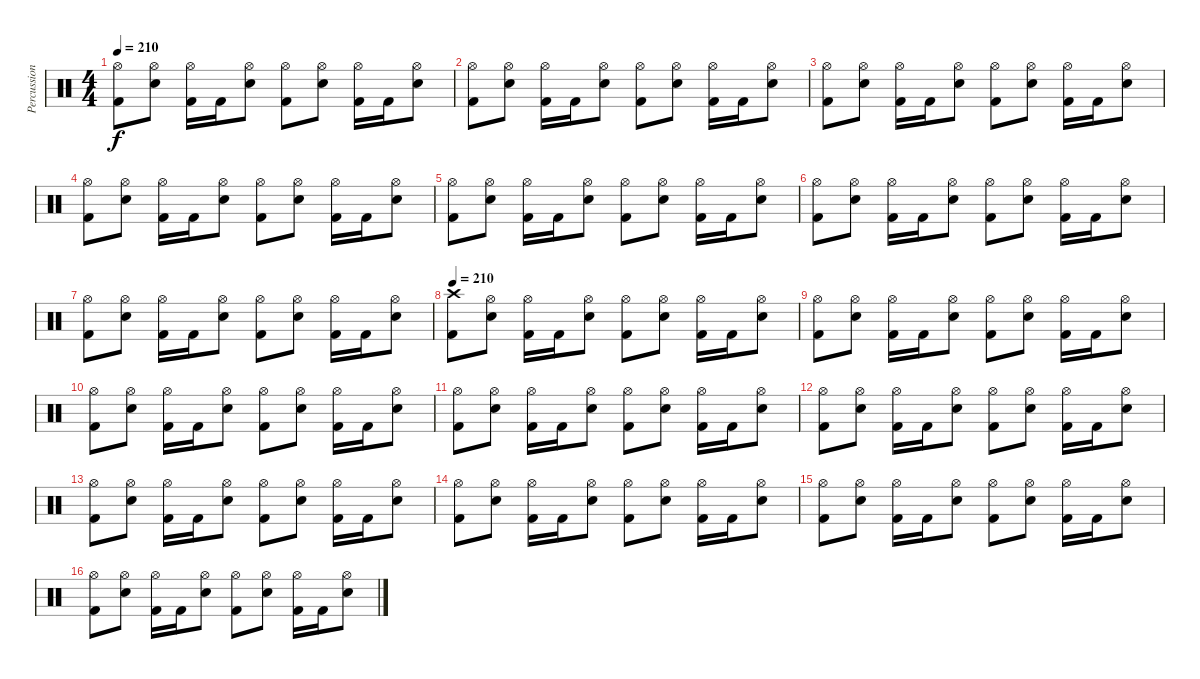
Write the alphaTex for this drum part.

\track ("Percussions" "Percussion") {instrument percussion}
\staff {score}
\articulation defaults
\ts (4 4)
\tempo 210
\clef neutral
\ks c
("Hi-Hat (open)" "Kick (hit) 2").8{dy f} ("Hi-Hat (open)" "Snare (hit) 2").8 ("Hi-Hat (open)" "Kick (hit) 2").16 "Kick (hit) 2".16 ("Hi-Hat (open)" "Snare (hit) 2").8 ("Hi-Hat (open)" "Kick (hit) 2").8 ("Hi-Hat (open)" "Snare (hit) 2").8 ("Hi-Hat (open)" "Kick (hit) 2").16 "Kick (hit) 2".16 ("Hi-Hat (open)" "Snare (hit) 2").8 |
("Hi-Hat (open)" "Kick (hit) 2").8 ("Hi-Hat (open)" "Snare (hit) 2").8 ("Hi-Hat (open)" "Kick (hit) 2").16 "Kick (hit) 2".16 ("Hi-Hat (open)" "Snare (hit) 2").8 ("Hi-Hat (open)" "Kick (hit) 2").8 ("Hi-Hat (open)" "Snare (hit) 2").8 ("Hi-Hat (open)" "Kick (hit) 2").16 "Kick (hit) 2".16 ("Hi-Hat (open)" "Snare (hit) 2").8 |
("Hi-Hat (open)" "Kick (hit) 2").8 ("Hi-Hat (open)" "Snare (hit) 2").8 ("Hi-Hat (open)" "Kick (hit) 2").16 "Kick (hit) 2".16 ("Hi-Hat (open)" "Snare (hit) 2").8 ("Hi-Hat (open)" "Kick (hit) 2").8 ("Hi-Hat (open)" "Snare (hit) 2").8 ("Hi-Hat (open)" "Kick (hit) 2").16 "Kick (hit) 2".16 ("Hi-Hat (open)" "Snare (hit) 2").8 |
("Hi-Hat (open)" "Kick (hit) 2").8 ("Hi-Hat (open)" "Snare (hit) 2").8 ("Hi-Hat (open)" "Kick (hit) 2").16 "Kick (hit) 2".16 ("Hi-Hat (open)" "Snare (hit) 2").8 ("Hi-Hat (open)" "Kick (hit) 2").8 ("Hi-Hat (open)" "Snare (hit) 2").8 ("Hi-Hat (open)" "Kick (hit) 2").16 "Kick (hit) 2".16 ("Hi-Hat (open)" "Snare (hit) 2").8 |
("Hi-Hat (open)" "Kick (hit) 2").8 ("Hi-Hat (open)" "Snare (hit) 2").8 ("Hi-Hat (open)" "Kick (hit) 2").16 "Kick (hit) 2".16 ("Hi-Hat (open)" "Snare (hit) 2").8 ("Hi-Hat (open)" "Kick (hit) 2").8 ("Hi-Hat (open)" "Snare (hit) 2").8 ("Hi-Hat (open)" "Kick (hit) 2").16 "Kick (hit) 2".16 ("Hi-Hat (open)" "Snare (hit) 2").8 |
("Hi-Hat (open)" "Kick (hit) 2").8 ("Hi-Hat (open)" "Snare (hit) 2").8 ("Hi-Hat (open)" "Kick (hit) 2").16 "Kick (hit) 2".16 ("Hi-Hat (open)" "Snare (hit) 2").8 ("Hi-Hat (open)" "Kick (hit) 2").8 ("Hi-Hat (open)" "Snare (hit) 2").8 ("Hi-Hat (open)" "Kick (hit) 2").16 "Kick (hit) 2".16 ("Hi-Hat (open)" "Snare (hit) 2").8 |
("Hi-Hat (open)" "Kick (hit) 2").8 ("Hi-Hat (open)" "Snare (hit) 2").8 ("Hi-Hat (open)" "Kick (hit) 2").16 "Kick (hit) 2".16 ("Hi-Hat (open)" "Snare (hit) 2").8 ("Hi-Hat (open)" "Kick (hit) 2").8 ("Hi-Hat (open)" "Snare (hit) 2").8 ("Hi-Hat (open)" "Kick (hit) 2").16 "Kick (hit) 2".16 ("Hi-Hat (open)" "Snare (hit) 2").8 |
\tempo 210
("Crash high (hit)" "Kick (hit) 2").8 ("Hi-Hat (open)" "Snare (hit) 2").8 ("Hi-Hat (open)" "Kick (hit) 2").16 "Kick (hit) 2".16 ("Hi-Hat (open)" "Snare (hit) 2").8 ("Hi-Hat (open)" "Kick (hit) 2").8 ("Hi-Hat (open)" "Snare (hit) 2").8 ("Hi-Hat (open)" "Kick (hit) 2").16 "Kick (hit) 2".16 ("Hi-Hat (open)" "Snare (hit) 2").8 |
("Hi-Hat (open)" "Kick (hit) 2").8 ("Hi-Hat (open)" "Snare (hit) 2").8 ("Hi-Hat (open)" "Kick (hit) 2").16 "Kick (hit) 2".16 ("Hi-Hat (open)" "Snare (hit) 2").8 ("Hi-Hat (open)" "Kick (hit) 2").8 ("Hi-Hat (open)" "Snare (hit) 2").8 ("Hi-Hat (open)" "Kick (hit) 2").16 "Kick (hit) 2".16 ("Hi-Hat (open)" "Snare (hit) 2").8 |
("Hi-Hat (open)" "Kick (hit) 2").8 ("Hi-Hat (open)" "Snare (hit) 2").8 ("Hi-Hat (open)" "Kick (hit) 2").16 "Kick (hit) 2".16 ("Hi-Hat (open)" "Snare (hit) 2").8 ("Hi-Hat (open)" "Kick (hit) 2").8 ("Hi-Hat (open)" "Snare (hit) 2").8 ("Hi-Hat (open)" "Kick (hit) 2").16 "Kick (hit) 2".16 ("Hi-Hat (open)" "Snare (hit) 2").8 |
("Hi-Hat (open)" "Kick (hit) 2").8 ("Hi-Hat (open)" "Snare (hit) 2").8 ("Hi-Hat (open)" "Kick (hit) 2").16 "Kick (hit) 2".16 ("Hi-Hat (open)" "Snare (hit) 2").8 ("Hi-Hat (open)" "Kick (hit) 2").8 ("Hi-Hat (open)" "Snare (hit) 2").8 ("Hi-Hat (open)" "Kick (hit) 2").16 "Kick (hit) 2".16 ("Hi-Hat (open)" "Snare (hit) 2").8 |
("Hi-Hat (open)" "Kick (hit) 2").8 ("Hi-Hat (open)" "Snare (hit) 2").8 ("Hi-Hat (open)" "Kick (hit) 2").16 "Kick (hit) 2".16 ("Hi-Hat (open)" "Snare (hit) 2").8 ("Hi-Hat (open)" "Kick (hit) 2").8 ("Hi-Hat (open)" "Snare (hit) 2").8 ("Hi-Hat (open)" "Kick (hit) 2").16 "Kick (hit) 2".16 ("Hi-Hat (open)" "Snare (hit) 2").8 |
("Hi-Hat (open)" "Kick (hit) 2").8 ("Hi-Hat (open)" "Snare (hit) 2").8 ("Hi-Hat (open)" "Kick (hit) 2").16 "Kick (hit) 2".16 ("Hi-Hat (open)" "Snare (hit) 2").8 ("Hi-Hat (open)" "Kick (hit) 2").8 ("Hi-Hat (open)" "Snare (hit) 2").8 ("Hi-Hat (open)" "Kick (hit) 2").16 "Kick (hit) 2".16 ("Hi-Hat (open)" "Snare (hit) 2").8 |
("Hi-Hat (open)" "Kick (hit) 2").8 ("Hi-Hat (open)" "Snare (hit) 2").8 ("Hi-Hat (open)" "Kick (hit) 2").16 "Kick (hit) 2".16 ("Hi-Hat (open)" "Snare (hit) 2").8 ("Hi-Hat (open)" "Kick (hit) 2").8 ("Hi-Hat (open)" "Snare (hit) 2").8 ("Hi-Hat (open)" "Kick (hit) 2").16 "Kick (hit) 2".16 ("Hi-Hat (open)" "Snare (hit) 2").8 |
("Hi-Hat (open)" "Kick (hit) 2").8 ("Hi-Hat (open)" "Snare (hit) 2").8 ("Hi-Hat (open)" "Kick (hit) 2").16 "Kick (hit) 2".16 ("Hi-Hat (open)" "Snare (hit) 2").8 ("Hi-Hat (open)" "Kick (hit) 2").8 ("Hi-Hat (open)" "Snare (hit) 2").8 ("Hi-Hat (open)" "Kick (hit) 2").16 "Kick (hit) 2".16 ("Hi-Hat (open)" "Snare (hit) 2").8 |
("Hi-Hat (open)" "Kick (hit) 2").8 ("Hi-Hat (open)" "Snare (hit) 2").8 ("Hi-Hat (open)" "Kick (hit) 2").16 "Kick (hit) 2".16 ("Hi-Hat (open)" "Snare (hit) 2").8 ("Hi-Hat (open)" "Kick (hit) 2").8 ("Hi-Hat (open)" "Snare (hit) 2").8 ("Hi-Hat (open)" "Kick (hit) 2").16 "Kick (hit) 2".16 ("Hi-Hat (open)" "Snare (hit) 2").8
